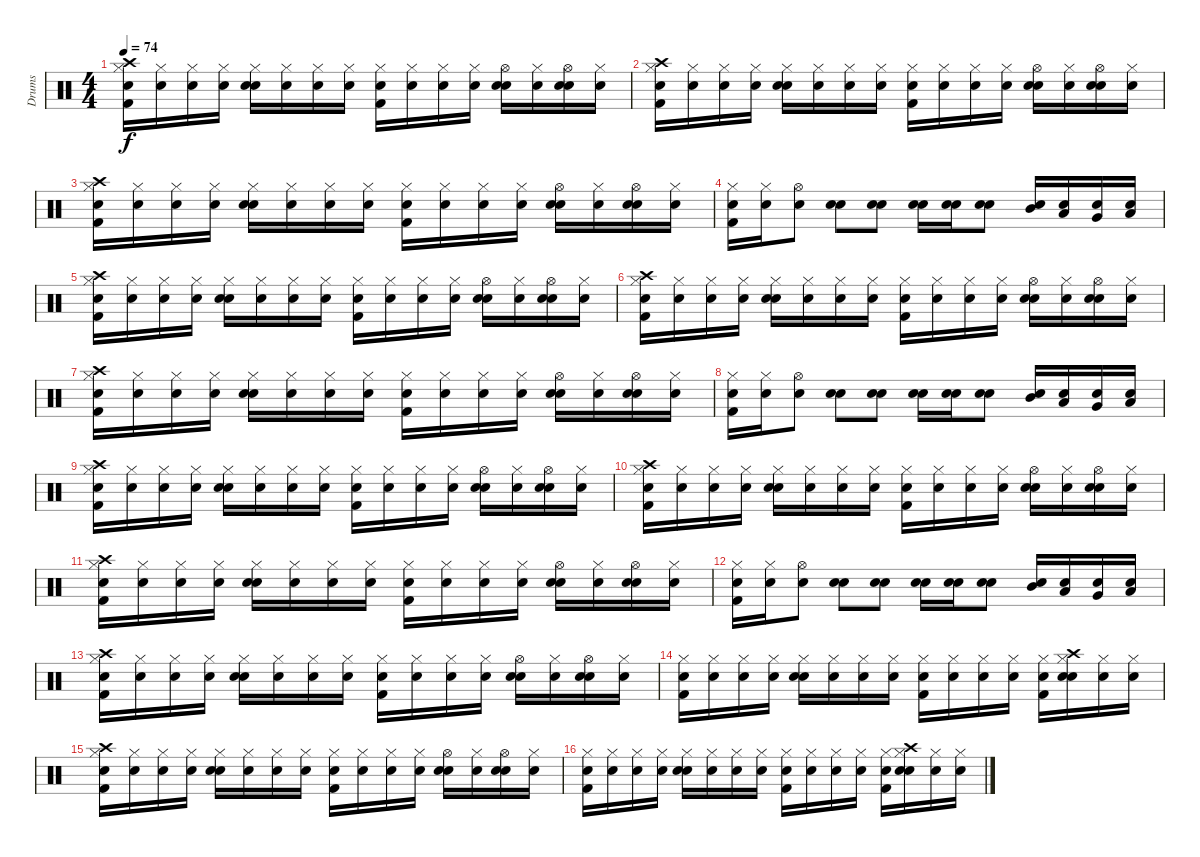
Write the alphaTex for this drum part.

\track ("Drums" "Drums") {instrument percussion}
\staff {score}
\articulation defaults
\ts (4 4)
\tempo 74
\clef neutral
\ks c
("Snare (hit)" "Kick (hit) 2" "Hi-Hat (closed)" "Crash high (hit)").16{dy f} ("Snare (hit)" "Hi-Hat (closed)").16 ("Snare (hit)" "Hi-Hat (closed)").16 ("Snare (hit)" "Hi-Hat (closed)").16 ("Snare (hit)" "Snare (hit) 2" "Hi-Hat (closed)").16 ("Snare (hit)" "Hi-Hat (closed)").16 ("Snare (hit)" "Hi-Hat (closed)").16 ("Snare (hit)" "Hi-Hat (closed)").16 ("Snare (hit)" "Kick (hit) 2" "Hi-Hat (closed)").16 ("Snare (hit)" "Hi-Hat (closed)").16 ("Snare (hit)" "Hi-Hat (closed)").16 ("Snare (hit)" "Hi-Hat (closed)").16 ("Snare (hit)" "Snare (hit) 2" "Hi-Hat (open)").16 ("Snare (hit)" "Hi-Hat (closed)").16 ("Snare (hit)" "Snare (hit) 2" "Hi-Hat (open)").16 ("Snare (hit)" "Hi-Hat (closed)").16 |
("Snare (hit)" "Kick (hit) 2" "Hi-Hat (closed)" "Crash high (hit)").16 ("Snare (hit)" "Hi-Hat (closed)").16 ("Snare (hit)" "Hi-Hat (closed)").16 ("Snare (hit)" "Hi-Hat (closed)").16 ("Snare (hit)" "Snare (hit) 2" "Hi-Hat (closed)").16 ("Snare (hit)" "Hi-Hat (closed)").16 ("Snare (hit)" "Hi-Hat (closed)").16 ("Snare (hit)" "Hi-Hat (closed)").16 ("Snare (hit)" "Kick (hit) 2" "Hi-Hat (closed)").16 ("Snare (hit)" "Hi-Hat (closed)").16 ("Snare (hit)" "Hi-Hat (closed)").16 ("Snare (hit)" "Hi-Hat (closed)").16 ("Snare (hit)" "Snare (hit) 2" "Hi-Hat (open)").16 ("Snare (hit)" "Hi-Hat (closed)").16 ("Snare (hit)" "Snare (hit) 2" "Hi-Hat (open)").16 ("Snare (hit)" "Hi-Hat (closed)").16 |
("Snare (hit)" "Kick (hit) 2" "Hi-Hat (closed)" "Crash high (hit)").16 ("Snare (hit)" "Hi-Hat (closed)").16 ("Snare (hit)" "Hi-Hat (closed)").16 ("Snare (hit)" "Hi-Hat (closed)").16 ("Snare (hit)" "Snare (hit) 2" "Hi-Hat (closed)").16 ("Snare (hit)" "Hi-Hat (closed)").16 ("Snare (hit)" "Hi-Hat (closed)").16 ("Snare (hit)" "Hi-Hat (closed)").16 ("Snare (hit)" "Kick (hit) 2" "Hi-Hat (closed)").16 ("Snare (hit)" "Hi-Hat (closed)").16 ("Snare (hit)" "Hi-Hat (closed)").16 ("Snare (hit)" "Hi-Hat (closed)").16 ("Snare (hit)" "Snare (hit) 2" "Hi-Hat (open)").16 ("Snare (hit)" "Hi-Hat (closed)").16 ("Snare (hit)" "Snare (hit) 2" "Hi-Hat (open)").16 ("Snare (hit)" "Hi-Hat (closed)").16 |
("Snare (hit)" "Kick (hit) 2" "Hi-Hat (closed)").16 ("Snare (hit)" "Hi-Hat (closed)").16 ("Snare (hit)" "Hi-Hat (open)").8 ("Snare (hit)" "Snare (hit) 2").8 ("Snare (hit)" "Snare (hit) 2").8 ("Snare (hit)" "Snare (hit) 2").16 ("Snare (hit)" "Snare (hit) 2").16 ("Snare (hit)" "Snare (hit) 2").8 ("Snare (hit)" "Mid Tom (hit)").16 ("Snare (hit)" "Low Tom (hit)").16 ("Snare (hit)" "Very Low Tom (hit)").16 ("Snare (hit)" "Low Floor Tom (hit)").16 |
("Snare (hit)" "Kick (hit) 2" "Hi-Hat (closed)" "Crash high (hit)").16 ("Snare (hit)" "Hi-Hat (closed)").16 ("Snare (hit)" "Hi-Hat (closed)").16 ("Snare (hit)" "Hi-Hat (closed)").16 ("Snare (hit)" "Snare (hit) 2" "Hi-Hat (closed)").16 ("Snare (hit)" "Hi-Hat (closed)").16 ("Snare (hit)" "Hi-Hat (closed)").16 ("Snare (hit)" "Hi-Hat (closed)").16 ("Snare (hit)" "Kick (hit) 2" "Hi-Hat (closed)").16 ("Snare (hit)" "Hi-Hat (closed)").16 ("Snare (hit)" "Hi-Hat (closed)").16 ("Snare (hit)" "Hi-Hat (closed)").16 ("Snare (hit)" "Snare (hit) 2" "Hi-Hat (open)").16 ("Snare (hit)" "Hi-Hat (closed)").16 ("Snare (hit)" "Snare (hit) 2" "Hi-Hat (open)").16 ("Snare (hit)" "Hi-Hat (closed)").16 |
("Snare (hit)" "Kick (hit) 2" "Hi-Hat (closed)" "Crash high (hit)").16 ("Snare (hit)" "Hi-Hat (closed)").16 ("Snare (hit)" "Hi-Hat (closed)").16 ("Snare (hit)" "Hi-Hat (closed)").16 ("Snare (hit)" "Snare (hit) 2" "Hi-Hat (closed)").16 ("Snare (hit)" "Hi-Hat (closed)").16 ("Snare (hit)" "Hi-Hat (closed)").16 ("Snare (hit)" "Hi-Hat (closed)").16 ("Snare (hit)" "Kick (hit) 2" "Hi-Hat (closed)").16 ("Snare (hit)" "Hi-Hat (closed)").16 ("Snare (hit)" "Hi-Hat (closed)").16 ("Snare (hit)" "Hi-Hat (closed)").16 ("Snare (hit)" "Snare (hit) 2" "Hi-Hat (open)").16 ("Snare (hit)" "Hi-Hat (closed)").16 ("Snare (hit)" "Snare (hit) 2" "Hi-Hat (open)").16 ("Snare (hit)" "Hi-Hat (closed)").16 |
("Snare (hit)" "Kick (hit) 2" "Hi-Hat (closed)" "Crash high (hit)").16 ("Snare (hit)" "Hi-Hat (closed)").16 ("Snare (hit)" "Hi-Hat (closed)").16 ("Snare (hit)" "Hi-Hat (closed)").16 ("Snare (hit)" "Snare (hit) 2" "Hi-Hat (closed)").16 ("Snare (hit)" "Hi-Hat (closed)").16 ("Snare (hit)" "Hi-Hat (closed)").16 ("Snare (hit)" "Hi-Hat (closed)").16 ("Snare (hit)" "Kick (hit) 2" "Hi-Hat (closed)").16 ("Snare (hit)" "Hi-Hat (closed)").16 ("Snare (hit)" "Hi-Hat (closed)").16 ("Snare (hit)" "Hi-Hat (closed)").16 ("Snare (hit)" "Snare (hit) 2" "Hi-Hat (open)").16 ("Snare (hit)" "Hi-Hat (closed)").16 ("Snare (hit)" "Snare (hit) 2" "Hi-Hat (open)").16 ("Snare (hit)" "Hi-Hat (closed)").16 |
("Snare (hit)" "Kick (hit) 2" "Hi-Hat (closed)").16 ("Snare (hit)" "Hi-Hat (closed)").16 ("Snare (hit)" "Hi-Hat (open)").8 ("Snare (hit)" "Snare (hit) 2").8 ("Snare (hit)" "Snare (hit) 2").8 ("Snare (hit)" "Snare (hit) 2").16 ("Snare (hit)" "Snare (hit) 2").16 ("Snare (hit)" "Snare (hit) 2").8 ("Snare (hit)" "Mid Tom (hit)").16 ("Snare (hit)" "Low Tom (hit)").16 ("Snare (hit)" "Very Low Tom (hit)").16 ("Snare (hit)" "Low Floor Tom (hit)").16 |
("Snare (hit)" "Kick (hit) 2" "Hi-Hat (closed)" "Crash high (hit)").16 ("Snare (hit)" "Hi-Hat (closed)").16 ("Snare (hit)" "Hi-Hat (closed)").16 ("Snare (hit)" "Hi-Hat (closed)").16 ("Snare (hit)" "Snare (hit) 2" "Hi-Hat (closed)").16 ("Snare (hit)" "Hi-Hat (closed)").16 ("Snare (hit)" "Hi-Hat (closed)").16 ("Snare (hit)" "Hi-Hat (closed)").16 ("Snare (hit)" "Kick (hit) 2" "Hi-Hat (closed)").16 ("Snare (hit)" "Hi-Hat (closed)").16 ("Snare (hit)" "Hi-Hat (closed)").16 ("Snare (hit)" "Hi-Hat (closed)").16 ("Snare (hit)" "Snare (hit) 2" "Hi-Hat (open)").16 ("Snare (hit)" "Hi-Hat (closed)").16 ("Snare (hit)" "Snare (hit) 2" "Hi-Hat (open)").16 ("Snare (hit)" "Hi-Hat (closed)").16 |
("Snare (hit)" "Kick (hit) 2" "Hi-Hat (closed)" "Crash high (hit)").16 ("Snare (hit)" "Hi-Hat (closed)").16 ("Snare (hit)" "Hi-Hat (closed)").16 ("Snare (hit)" "Hi-Hat (closed)").16 ("Snare (hit)" "Snare (hit) 2" "Hi-Hat (closed)").16 ("Snare (hit)" "Hi-Hat (closed)").16 ("Snare (hit)" "Hi-Hat (closed)").16 ("Snare (hit)" "Hi-Hat (closed)").16 ("Snare (hit)" "Kick (hit) 2" "Hi-Hat (closed)").16 ("Snare (hit)" "Hi-Hat (closed)").16 ("Snare (hit)" "Hi-Hat (closed)").16 ("Snare (hit)" "Hi-Hat (closed)").16 ("Snare (hit)" "Snare (hit) 2" "Hi-Hat (open)").16 ("Snare (hit)" "Hi-Hat (closed)").16 ("Snare (hit)" "Snare (hit) 2" "Hi-Hat (open)").16 ("Snare (hit)" "Hi-Hat (closed)").16 |
("Snare (hit)" "Kick (hit) 2" "Hi-Hat (closed)" "Crash high (hit)").16 ("Snare (hit)" "Hi-Hat (closed)").16 ("Snare (hit)" "Hi-Hat (closed)").16 ("Snare (hit)" "Hi-Hat (closed)").16 ("Snare (hit)" "Snare (hit) 2" "Hi-Hat (closed)").16 ("Snare (hit)" "Hi-Hat (closed)").16 ("Snare (hit)" "Hi-Hat (closed)").16 ("Snare (hit)" "Hi-Hat (closed)").16 ("Snare (hit)" "Kick (hit) 2" "Hi-Hat (closed)").16 ("Snare (hit)" "Hi-Hat (closed)").16 ("Snare (hit)" "Hi-Hat (closed)").16 ("Snare (hit)" "Hi-Hat (closed)").16 ("Snare (hit)" "Snare (hit) 2" "Hi-Hat (open)").16 ("Snare (hit)" "Hi-Hat (closed)").16 ("Snare (hit)" "Snare (hit) 2" "Hi-Hat (open)").16 ("Snare (hit)" "Hi-Hat (closed)").16 |
("Snare (hit)" "Kick (hit) 2" "Hi-Hat (closed)").16 ("Snare (hit)" "Hi-Hat (closed)").16 ("Snare (hit)" "Hi-Hat (open)").8 ("Snare (hit)" "Snare (hit) 2").8 ("Snare (hit)" "Snare (hit) 2").8 ("Snare (hit)" "Snare (hit) 2").16 ("Snare (hit)" "Snare (hit) 2").16 ("Snare (hit)" "Snare (hit) 2").8 ("Snare (hit)" "Mid Tom (hit)").16 ("Snare (hit)" "Low Tom (hit)").16 ("Snare (hit)" "Very Low Tom (hit)").16 ("Snare (hit)" "Low Floor Tom (hit)").16 |
("Snare (hit)" "Kick (hit) 2" "Hi-Hat (closed)" "Crash high (hit)").16 ("Snare (hit)" "Hi-Hat (closed)").16 ("Snare (hit)" "Hi-Hat (closed)").16 ("Snare (hit)" "Hi-Hat (closed)").16 ("Snare (hit)" "Snare (hit) 2" "Hi-Hat (closed)").16 ("Snare (hit)" "Hi-Hat (closed)").16 ("Snare (hit)" "Hi-Hat (closed)").16 ("Snare (hit)" "Hi-Hat (closed)").16 ("Snare (hit)" "Kick (hit) 2" "Hi-Hat (closed)").16 ("Snare (hit)" "Hi-Hat (closed)").16 ("Snare (hit)" "Hi-Hat (closed)").16 ("Snare (hit)" "Hi-Hat (closed)").16 ("Snare (hit)" "Snare (hit) 2" "Hi-Hat (open)").16 ("Snare (hit)" "Hi-Hat (closed)").16 ("Snare (hit)" "Snare (hit) 2" "Hi-Hat (open)").16 ("Snare (hit)" "Hi-Hat (closed)").16 |
("Snare (hit)" "Kick (hit) 2" "Hi-Hat (closed)").16 ("Snare (hit)" "Hi-Hat (closed)").16 ("Snare (hit)" "Hi-Hat (closed)").16 ("Snare (hit)" "Hi-Hat (closed)").16 ("Snare (hit)" "Snare (hit) 2" "Hi-Hat (closed)").16 ("Snare (hit)" "Hi-Hat (closed)").16 ("Snare (hit)" "Hi-Hat (closed)").16 ("Snare (hit)" "Hi-Hat (closed)").16 ("Snare (hit)" "Kick (hit) 2" "Hi-Hat (closed)").16 ("Snare (hit)" "Hi-Hat (closed)").16 ("Snare (hit)" "Hi-Hat (closed)").16 ("Snare (hit)" "Hi-Hat (closed)").16 ("Snare (hit)" "Kick (hit) 2" "Hi-Hat (closed)").16 ("Snare (hit)" "Snare (hit) 2" "Hi-Hat (closed)" "Crash high (hit)").16 ("Snare (hit)" "Hi-Hat (closed)").16 ("Snare (hit)" "Hi-Hat (closed)").16 |
("Snare (hit)" "Kick (hit) 2" "Hi-Hat (closed)" "Crash high (hit)").16 ("Snare (hit)" "Hi-Hat (closed)").16 ("Snare (hit)" "Hi-Hat (closed)").16 ("Snare (hit)" "Hi-Hat (closed)").16 ("Snare (hit)" "Snare (hit) 2" "Hi-Hat (closed)").16 ("Snare (hit)" "Hi-Hat (closed)").16 ("Snare (hit)" "Hi-Hat (closed)").16 ("Snare (hit)" "Hi-Hat (closed)").16 ("Snare (hit)" "Kick (hit) 2" "Hi-Hat (closed)").16 ("Snare (hit)" "Hi-Hat (closed)").16 ("Snare (hit)" "Hi-Hat (closed)").16 ("Snare (hit)" "Hi-Hat (closed)").16 ("Snare (hit)" "Snare (hit) 2" "Hi-Hat (open)").16 ("Snare (hit)" "Hi-Hat (closed)").16 ("Snare (hit)" "Snare (hit) 2" "Hi-Hat (open)").16 ("Snare (hit)" "Hi-Hat (closed)").16 |
("Snare (hit)" "Kick (hit) 2" "Hi-Hat (closed)").16 ("Snare (hit)" "Hi-Hat (closed)").16 ("Snare (hit)" "Hi-Hat (closed)").16 ("Snare (hit)" "Hi-Hat (closed)").16 ("Snare (hit)" "Snare (hit) 2" "Hi-Hat (closed)").16 ("Snare (hit)" "Hi-Hat (closed)").16 ("Snare (hit)" "Hi-Hat (closed)").16 ("Snare (hit)" "Hi-Hat (closed)").16 ("Snare (hit)" "Kick (hit) 2" "Hi-Hat (closed)").16 ("Snare (hit)" "Hi-Hat (closed)").16 ("Snare (hit)" "Hi-Hat (closed)").16 ("Snare (hit)" "Hi-Hat (closed)").16 ("Snare (hit)" "Kick (hit) 2" "Hi-Hat (closed)").16 ("Snare (hit)" "Snare (hit) 2" "Hi-Hat (closed)" "Crash high (hit)").16 ("Snare (hit)" "Hi-Hat (closed)").16 ("Snare (hit)" "Hi-Hat (closed)").16
